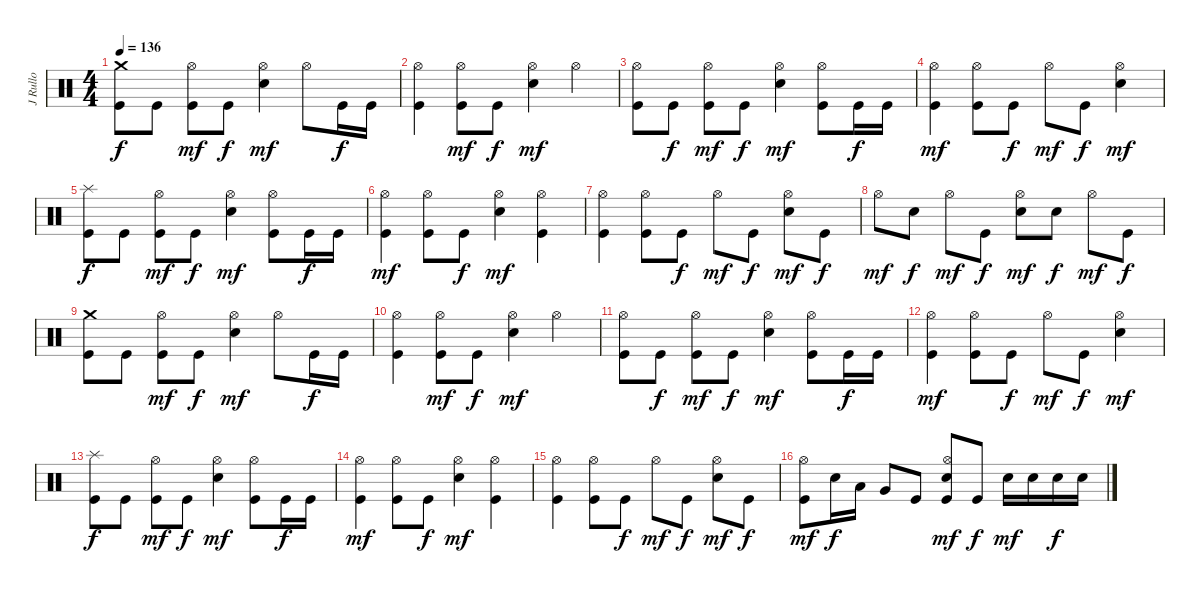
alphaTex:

\track ("J Rullo" "J Rullo") {instrument percussion}
\staff {score}
\articulation defaults
\ts (4 4)
\tempo 136
\clef neutral
\ks c
("Crash medium (hit)" "Kick (hit)").8{dy f} "Kick (hit)".8 ("Hi-Hat (open)" "Kick (hit)").8{dy mf} "Kick (hit)".8{dy f} ("Hi-Hat (open)" "Electric Snare (hit)").4{dy mf} "Hi-Hat (open)".8 "Kick (hit)".16{dy f} "Kick (hit)".16 |
("Hi-Hat (open)" "Kick (hit)").4 ("Hi-Hat (open)" "Kick (hit)").8{dy mf} "Kick (hit)".8{dy f} ("Hi-Hat (open)" "Electric Snare (hit)").4{dy mf} "Hi-Hat (open)".4 |
("Hi-Hat (open)" "Kick (hit)").8 "Kick (hit)".8{dy f} ("Hi-Hat (open)" "Kick (hit)").8{dy mf} "Kick (hit)".8{dy f} ("Hi-Hat (open)" "Electric Snare (hit)").4{dy mf} ("Hi-Hat (open)" "Kick (hit)").8 "Kick (hit)".16{dy f} "Kick (hit)".16 |
("Hi-Hat (open)" "Kick (hit)").4{dy mf} ("Hi-Hat (open)" "Kick (hit)").8 "Kick (hit)".8{dy f} "Hi-Hat (open)".8{dy mf} "Kick (hit)".8{dy f} ("Hi-Hat (open)" "Electric Snare (hit)").4{dy mf} |
("Splash (hit)" "Kick (hit)").8{dy f} "Kick (hit)".8 ("Hi-Hat (open)" "Kick (hit)").8{dy mf} "Kick (hit)".8{dy f} ("Hi-Hat (open)" "Electric Snare (hit)").4{dy mf} ("Hi-Hat (open)" "Kick (hit)").8 "Kick (hit)".16{dy f} "Kick (hit)".16 |
("Hi-Hat (open)" "Kick (hit)").4{dy mf} ("Hi-Hat (open)" "Kick (hit)").8 "Kick (hit)".8{dy f} ("Hi-Hat (open)" "Electric Snare (hit)").4{dy mf} ("Hi-Hat (open)" "Kick (hit)").4 |
("Hi-Hat (open)" "Kick (hit)").4 ("Hi-Hat (open)" "Kick (hit)").8 "Kick (hit)".8{dy f} "Hi-Hat (open)".8{dy mf} "Kick (hit)".8{dy f} ("Hi-Hat (open)" "Electric Snare (hit)").8{dy mf} "Kick (hit)".8{dy f} |
"Hi-Hat (open)".8{dy mf} "Electric Snare (hit)".8{dy f} "Hi-Hat (open)".8{dy mf} "Kick (hit)".8{dy f} ("Hi-Hat (open)" "Electric Snare (hit)").8{dy mf} "Electric Snare (hit)".8{dy f} "Hi-Hat (open)".8{dy mf} "Kick (hit)".8{dy f} |
("Crash medium (hit)" "Kick (hit)").8 "Kick (hit)".8 ("Hi-Hat (open)" "Kick (hit)").8{dy mf} "Kick (hit)".8{dy f} ("Hi-Hat (open)" "Electric Snare (hit)").4{dy mf} "Hi-Hat (open)".8 "Kick (hit)".16{dy f} "Kick (hit)".16 |
("Hi-Hat (open)" "Kick (hit)").4 ("Hi-Hat (open)" "Kick (hit)").8{dy mf} "Kick (hit)".8{dy f} ("Hi-Hat (open)" "Electric Snare (hit)").4{dy mf} "Hi-Hat (open)".4 |
("Hi-Hat (open)" "Kick (hit)").8 "Kick (hit)".8{dy f} ("Hi-Hat (open)" "Kick (hit)").8{dy mf} "Kick (hit)".8{dy f} ("Hi-Hat (open)" "Electric Snare (hit)").4{dy mf} ("Hi-Hat (open)" "Kick (hit)").8 "Kick (hit)".16{dy f} "Kick (hit)".16 |
("Hi-Hat (open)" "Kick (hit)").4{dy mf} ("Hi-Hat (open)" "Kick (hit)").8 "Kick (hit)".8{dy f} "Hi-Hat (open)".8{dy mf} "Kick (hit)".8{dy f} ("Hi-Hat (open)" "Electric Snare (hit)").4{dy mf} |
("Splash (hit)" "Kick (hit)").8{dy f} "Kick (hit)".8 ("Hi-Hat (open)" "Kick (hit)").8{dy mf} "Kick (hit)".8{dy f} ("Hi-Hat (open)" "Electric Snare (hit)").4{dy mf} ("Hi-Hat (open)" "Kick (hit)").8 "Kick (hit)".16{dy f} "Kick (hit)".16 |
("Hi-Hat (open)" "Kick (hit)").4{dy mf} ("Hi-Hat (open)" "Kick (hit)").8 "Kick (hit)".8{dy f} ("Hi-Hat (open)" "Electric Snare (hit)").4{dy mf} ("Hi-Hat (open)" "Kick (hit)").4 |
("Hi-Hat (open)" "Kick (hit)").4 ("Hi-Hat (open)" "Kick (hit)").8 "Kick (hit)".8{dy f} "Hi-Hat (open)".8{dy mf} "Kick (hit)".8{dy f} ("Hi-Hat (open)" "Electric Snare (hit)").8{dy mf} "Kick (hit)".8{dy f} |
("Hi-Hat (open)" "Kick (hit)").8{dy mf} "Electric Snare (hit)".16{dy f} "Low Tom (hit)".16 "Very Low Tom (hit)".8 "Kick (hit)".8 ("Hi-Hat (open)" "Electric Snare (hit)" "Kick (hit)").8{dy mf} "Kick (hit)".8{dy f} "Electric Snare (hit)".16{dy mf} "Electric Snare (hit)".16 "Electric Snare (hit)".16{dy f} "Electric Snare (hit)".16
